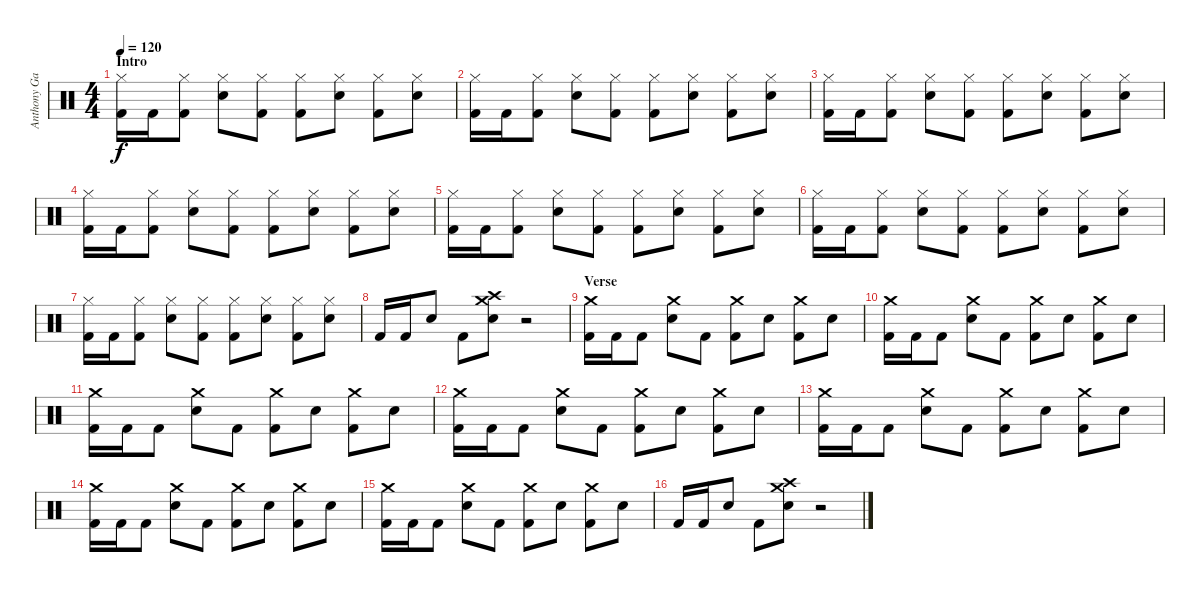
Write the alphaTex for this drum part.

\track ("Anthony Garbarino" "Anthony Ga") {instrument percussion}
\staff {score}
\articulation defaults
\ts (4 4)
\section ("" "Intro")
\tempo 120
\clef neutral
\ks c
("Hi-Hat (closed)" "Kick (hit) 2").16{dy f} "Kick (hit) 2".16 ("Hi-Hat (closed)" "Kick (hit) 2").8 ("Hi-Hat (closed)" "Snare (hit) 2").8 ("Hi-Hat (closed)" "Kick (hit) 2").8 ("Hi-Hat (closed)" "Kick (hit) 2").8 ("Hi-Hat (closed)" "Snare (hit) 2").8 ("Hi-Hat (closed)" "Kick (hit) 2").8 ("Hi-Hat (closed)" "Snare (hit) 2").8 |
("Hi-Hat (closed)" "Kick (hit) 2").16 "Kick (hit) 2".16 ("Hi-Hat (closed)" "Kick (hit) 2").8 ("Hi-Hat (closed)" "Snare (hit) 2").8 ("Hi-Hat (closed)" "Kick (hit) 2").8 ("Hi-Hat (closed)" "Kick (hit) 2").8 ("Hi-Hat (closed)" "Snare (hit) 2").8 ("Hi-Hat (closed)" "Kick (hit) 2").8 ("Hi-Hat (closed)" "Snare (hit) 2").8 |
("Hi-Hat (closed)" "Kick (hit) 2").16 "Kick (hit) 2".16 ("Hi-Hat (closed)" "Kick (hit) 2").8 ("Hi-Hat (closed)" "Snare (hit) 2").8 ("Hi-Hat (closed)" "Kick (hit) 2").8 ("Hi-Hat (closed)" "Kick (hit) 2").8 ("Hi-Hat (closed)" "Snare (hit) 2").8 ("Hi-Hat (closed)" "Kick (hit) 2").8 ("Hi-Hat (closed)" "Snare (hit) 2").8 |
("Hi-Hat (closed)" "Kick (hit) 2").16 "Kick (hit) 2".16 ("Hi-Hat (closed)" "Kick (hit) 2").8 ("Hi-Hat (closed)" "Snare (hit) 2").8 ("Hi-Hat (closed)" "Kick (hit) 2").8 ("Hi-Hat (closed)" "Kick (hit) 2").8 ("Hi-Hat (closed)" "Snare (hit) 2").8 ("Hi-Hat (closed)" "Kick (hit) 2").8 ("Hi-Hat (closed)" "Snare (hit) 2").8 |
("Hi-Hat (closed)" "Kick (hit) 2").16 "Kick (hit) 2".16 ("Hi-Hat (closed)" "Kick (hit) 2").8 ("Hi-Hat (closed)" "Snare (hit) 2").8 ("Hi-Hat (closed)" "Kick (hit) 2").8 ("Hi-Hat (closed)" "Kick (hit) 2").8 ("Hi-Hat (closed)" "Snare (hit) 2").8 ("Hi-Hat (closed)" "Kick (hit) 2").8 ("Hi-Hat (closed)" "Snare (hit) 2").8 |
("Hi-Hat (closed)" "Kick (hit) 2").16 "Kick (hit) 2".16 ("Hi-Hat (closed)" "Kick (hit) 2").8 ("Hi-Hat (closed)" "Snare (hit) 2").8 ("Hi-Hat (closed)" "Kick (hit) 2").8 ("Hi-Hat (closed)" "Kick (hit) 2").8 ("Hi-Hat (closed)" "Snare (hit) 2").8 ("Hi-Hat (closed)" "Kick (hit) 2").8 ("Hi-Hat (closed)" "Snare (hit) 2").8 |
("Hi-Hat (closed)" "Kick (hit) 2").16 "Kick (hit) 2".16 ("Hi-Hat (closed)" "Kick (hit) 2").8 ("Hi-Hat (closed)" "Snare (hit) 2").8 ("Hi-Hat (closed)" "Kick (hit) 2").8 ("Hi-Hat (closed)" "Kick (hit) 2").8 ("Hi-Hat (closed)" "Snare (hit) 2").8 ("Hi-Hat (closed)" "Kick (hit) 2").8 ("Hi-Hat (closed)" "Snare (hit) 2").8 |
"Kick (hit) 2".16 "Kick (hit) 2".16 "Snare (hit) 2".8 "Kick (hit) 2".8 ("Crash medium (hit)" "Crash high (hit)" "Snare (hit) 2").8 r.2 |
\section ("" "Verse")
("Crash medium (hit)" "Kick (hit) 2").16 "Kick (hit) 2".16 "Kick (hit) 2".8 ("Crash medium (hit)" "Snare (hit) 2").8 "Kick (hit) 2".8 ("Crash medium (hit)" "Kick (hit) 2").8 "Snare (hit) 2".8 ("Crash medium (hit)" "Kick (hit) 2").8 "Snare (hit) 2".8 |
("Crash medium (hit)" "Kick (hit) 2").16 "Kick (hit) 2".16 "Kick (hit) 2".8 ("Crash medium (hit)" "Snare (hit) 2").8 "Kick (hit) 2".8 ("Crash medium (hit)" "Kick (hit) 2").8 "Snare (hit) 2".8 ("Crash medium (hit)" "Kick (hit) 2").8 "Snare (hit) 2".8 |
("Crash medium (hit)" "Kick (hit) 2").16 "Kick (hit) 2".16 "Kick (hit) 2".8 ("Crash medium (hit)" "Snare (hit) 2").8 "Kick (hit) 2".8 ("Crash medium (hit)" "Kick (hit) 2").8 "Snare (hit) 2".8 ("Crash medium (hit)" "Kick (hit) 2").8 "Snare (hit) 2".8 |
("Crash medium (hit)" "Kick (hit) 2").16 "Kick (hit) 2".16 "Kick (hit) 2".8 ("Crash medium (hit)" "Snare (hit) 2").8 "Kick (hit) 2".8 ("Crash medium (hit)" "Kick (hit) 2").8 "Snare (hit) 2".8 ("Crash medium (hit)" "Kick (hit) 2").8 "Snare (hit) 2".8 |
("Crash medium (hit)" "Kick (hit) 2").16 "Kick (hit) 2".16 "Kick (hit) 2".8 ("Crash medium (hit)" "Snare (hit) 2").8 "Kick (hit) 2".8 ("Crash medium (hit)" "Kick (hit) 2").8 "Snare (hit) 2".8 ("Crash medium (hit)" "Kick (hit) 2").8 "Snare (hit) 2".8 |
("Crash medium (hit)" "Kick (hit) 2").16 "Kick (hit) 2".16 "Kick (hit) 2".8 ("Crash medium (hit)" "Snare (hit) 2").8 "Kick (hit) 2".8 ("Crash medium (hit)" "Kick (hit) 2").8 "Snare (hit) 2".8 ("Crash medium (hit)" "Kick (hit) 2").8 "Snare (hit) 2".8 |
("Crash medium (hit)" "Kick (hit) 2").16 "Kick (hit) 2".16 "Kick (hit) 2".8 ("Crash medium (hit)" "Snare (hit) 2").8 "Kick (hit) 2".8 ("Crash medium (hit)" "Kick (hit) 2").8 "Snare (hit) 2".8 ("Crash medium (hit)" "Kick (hit) 2").8 "Snare (hit) 2".8 |
"Kick (hit) 2".16 "Kick (hit) 2".16 "Snare (hit) 2".8 "Kick (hit) 2".8 ("Crash medium (hit)" "Crash high (hit)" "Snare (hit) 2").8 r.2
